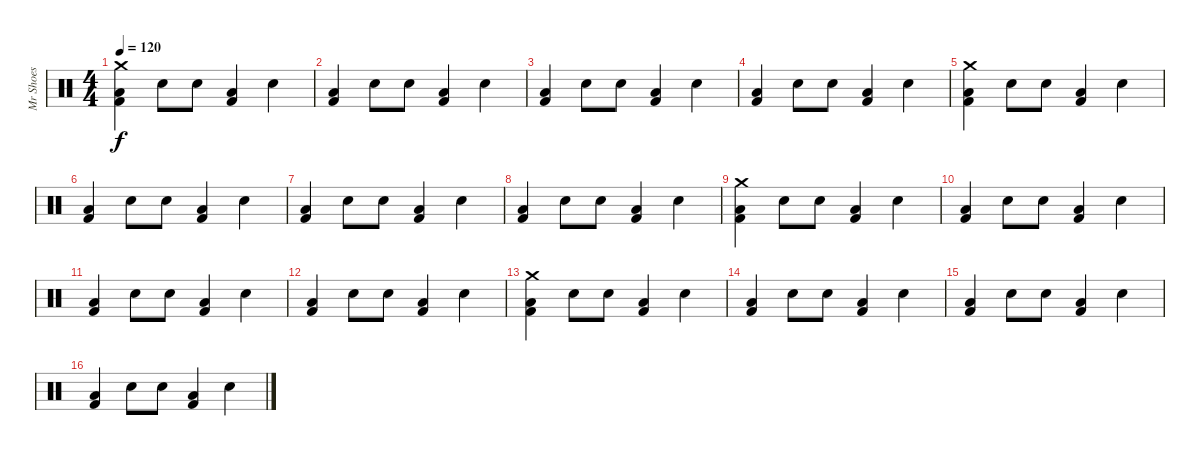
\track ("Mr Shoes" "Mr Shoes") {instrument percussion}
\staff {score}
\articulation defaults
\ts (4 4)
\tempo 120
\clef neutral
\ks c
("Crash medium (hit)" "Kick (hit) 2" "Low Floor Tom (hit)").4{dy f} "Electric Snare (hit)".8 "Electric Snare (hit)".8 ("Kick (hit) 2" "Low Floor Tom (hit)").4 "Electric Snare (hit)".4 |
("Kick (hit) 2" "Low Floor Tom (hit)").4 "Electric Snare (hit)".8 "Electric Snare (hit)".8 ("Kick (hit) 2" "Low Floor Tom (hit)").4 "Electric Snare (hit)".4 |
("Kick (hit) 2" "Low Floor Tom (hit)").4 "Electric Snare (hit)".8 "Electric Snare (hit)".8 ("Kick (hit) 2" "Low Floor Tom (hit)").4 "Electric Snare (hit)".4 |
("Kick (hit) 2" "Low Floor Tom (hit)").4 "Electric Snare (hit)".8 "Electric Snare (hit)".8 ("Kick (hit) 2" "Low Floor Tom (hit)").4 "Electric Snare (hit)".4 |
("Crash medium (hit)" "Kick (hit) 2" "Low Floor Tom (hit)").4 "Electric Snare (hit)".8 "Electric Snare (hit)".8 ("Kick (hit) 2" "Low Floor Tom (hit)").4 "Electric Snare (hit)".4 |
("Kick (hit) 2" "Low Floor Tom (hit)").4 "Electric Snare (hit)".8 "Electric Snare (hit)".8 ("Kick (hit) 2" "Low Floor Tom (hit)").4 "Electric Snare (hit)".4 |
("Kick (hit) 2" "Low Floor Tom (hit)").4 "Electric Snare (hit)".8 "Electric Snare (hit)".8 ("Kick (hit) 2" "Low Floor Tom (hit)").4 "Electric Snare (hit)".4 |
("Kick (hit) 2" "Low Floor Tom (hit)").4 "Electric Snare (hit)".8 "Electric Snare (hit)".8 ("Kick (hit) 2" "Low Floor Tom (hit)").4 "Electric Snare (hit)".4 |
("Crash medium (hit)" "Kick (hit) 2" "Low Floor Tom (hit)").4 "Electric Snare (hit)".8 "Electric Snare (hit)".8 ("Kick (hit) 2" "Low Floor Tom (hit)").4 "Electric Snare (hit)".4 |
("Kick (hit) 2" "Low Floor Tom (hit)").4 "Electric Snare (hit)".8 "Electric Snare (hit)".8 ("Kick (hit) 2" "Low Floor Tom (hit)").4 "Electric Snare (hit)".4 |
("Kick (hit) 2" "Low Floor Tom (hit)").4 "Electric Snare (hit)".8 "Electric Snare (hit)".8 ("Kick (hit) 2" "Low Floor Tom (hit)").4 "Electric Snare (hit)".4 |
("Kick (hit) 2" "Low Floor Tom (hit)").4 "Electric Snare (hit)".8 "Electric Snare (hit)".8 ("Kick (hit) 2" "Low Floor Tom (hit)").4 "Electric Snare (hit)".4 |
("Crash medium (hit)" "Kick (hit) 2" "Low Floor Tom (hit)").4 "Electric Snare (hit)".8 "Electric Snare (hit)".8 ("Kick (hit) 2" "Low Floor Tom (hit)").4 "Electric Snare (hit)".4 |
("Kick (hit) 2" "Low Floor Tom (hit)").4 "Electric Snare (hit)".8 "Electric Snare (hit)".8 ("Kick (hit) 2" "Low Floor Tom (hit)").4 "Electric Snare (hit)".4 |
("Kick (hit) 2" "Low Floor Tom (hit)").4 "Electric Snare (hit)".8 "Electric Snare (hit)".8 ("Kick (hit) 2" "Low Floor Tom (hit)").4 "Electric Snare (hit)".4 |
("Kick (hit) 2" "Low Floor Tom (hit)").4 "Electric Snare (hit)".8 "Electric Snare (hit)".8 ("Kick (hit) 2" "Low Floor Tom (hit)").4 "Electric Snare (hit)".4
